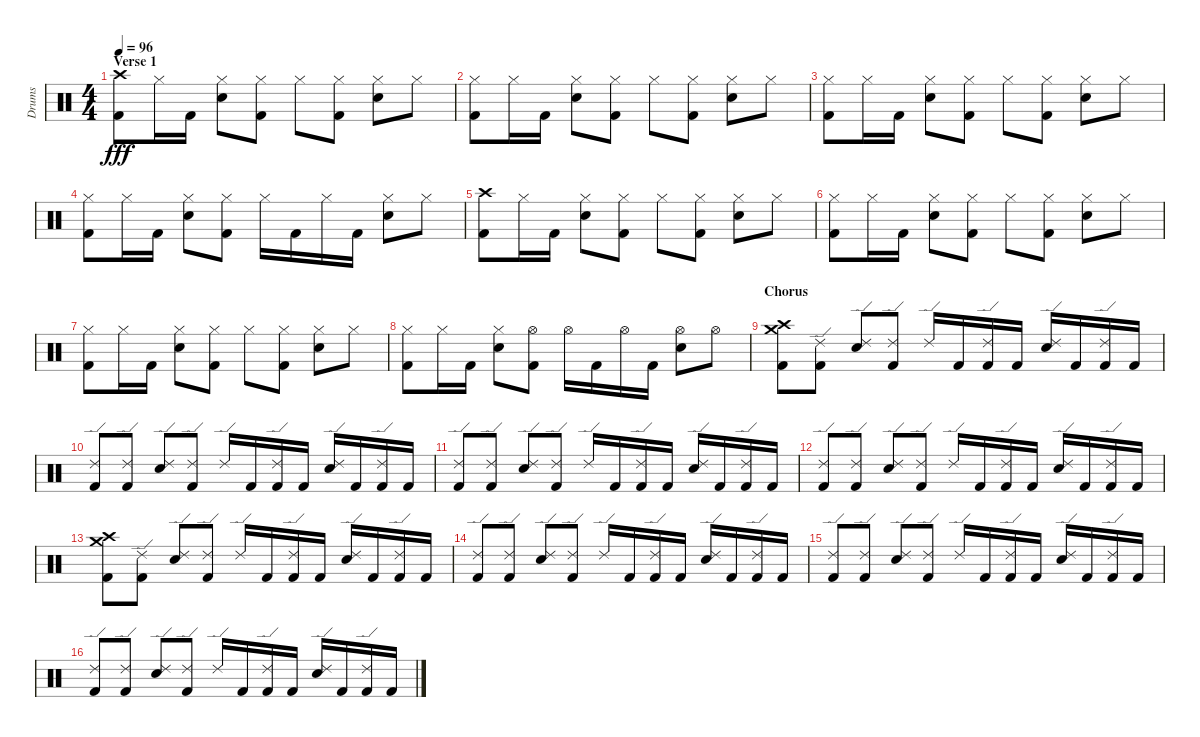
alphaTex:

\track ("Drums" "Drums") {instrument percussion}
\staff {score}
\articulation defaults
\ts (4 4)
\section ("" "Verse 1")
\tempo 96
\clef neutral
\ks c
("Crash high (hit)" "Kick (hit) 2").8{dy fff} "Hi-Hat (closed)".16 "Kick (hit) 2".16 ("Hi-Hat (closed)" "Electric Snare (hit)").8 ("Hi-Hat (closed)" "Kick (hit) 2").8 "Hi-Hat (closed)".8 ("Hi-Hat (closed)" "Kick (hit) 2").8 ("Hi-Hat (closed)" "Electric Snare (hit)").8 "Hi-Hat (closed)".8 |
("Hi-Hat (closed)" "Kick (hit) 2").8 "Hi-Hat (closed)".16 "Kick (hit) 2".16 ("Hi-Hat (closed)" "Electric Snare (hit)").8 ("Hi-Hat (closed)" "Kick (hit) 2").8 "Hi-Hat (closed)".8 ("Hi-Hat (closed)" "Kick (hit) 2").8 ("Hi-Hat (closed)" "Electric Snare (hit)").8 "Hi-Hat (closed)".8 |
("Hi-Hat (closed)" "Kick (hit) 2").8 "Hi-Hat (closed)".16 "Kick (hit) 2".16 ("Hi-Hat (closed)" "Electric Snare (hit)").8 ("Hi-Hat (closed)" "Kick (hit) 2").8 "Hi-Hat (closed)".8 ("Hi-Hat (closed)" "Kick (hit) 2").8 ("Hi-Hat (closed)" "Electric Snare (hit)").8 "Hi-Hat (closed)".8 |
("Hi-Hat (closed)" "Kick (hit) 2").8 "Hi-Hat (closed)".16 "Kick (hit) 2".16 ("Hi-Hat (closed)" "Electric Snare (hit)").8 ("Hi-Hat (closed)" "Kick (hit) 2").8 "Hi-Hat (closed)".16 "Kick (hit) 2".16 "Hi-Hat (closed)".16 "Kick (hit) 2".16 ("Hi-Hat (closed)" "Electric Snare (hit)").8 "Hi-Hat (closed)".8 |
("Crash high (hit)" "Kick (hit) 2").8 "Hi-Hat (closed)".16 "Kick (hit) 2".16 ("Hi-Hat (closed)" "Electric Snare (hit)").8 ("Hi-Hat (closed)" "Kick (hit) 2").8 "Hi-Hat (closed)".8 ("Hi-Hat (closed)" "Kick (hit) 2").8 ("Hi-Hat (closed)" "Electric Snare (hit)").8 "Hi-Hat (closed)".8 |
("Hi-Hat (closed)" "Kick (hit) 2").8 "Hi-Hat (closed)".16 "Kick (hit) 2".16 ("Hi-Hat (closed)" "Electric Snare (hit)").8 ("Hi-Hat (closed)" "Kick (hit) 2").8 "Hi-Hat (closed)".8 ("Hi-Hat (closed)" "Kick (hit) 2").8 ("Hi-Hat (closed)" "Electric Snare (hit)").8 "Hi-Hat (closed)".8 |
("Hi-Hat (closed)" "Kick (hit) 2").8 "Hi-Hat (closed)".16 "Kick (hit) 2".16 ("Hi-Hat (closed)" "Electric Snare (hit)").8 ("Hi-Hat (closed)" "Kick (hit) 2").8 "Hi-Hat (closed)".8 ("Hi-Hat (closed)" "Kick (hit) 2").8 ("Hi-Hat (closed)" "Electric Snare (hit)").8 "Hi-Hat (closed)".8 |
("Hi-Hat (closed)" "Kick (hit) 2").8 "Hi-Hat (closed)".16 "Kick (hit) 2".16 ("Hi-Hat (closed)" "Electric Snare (hit)").8 ("Hi-Hat (open)" "Kick (hit) 2").8 "Hi-Hat (open)".16 "Kick (hit) 2".16 "Hi-Hat (open)".16 "Kick (hit) 2".16 ("Hi-Hat (open)" "Electric Snare (hit)").8 "Hi-Hat (open)".8 |
\section ("" "Chorus")
("Crash high (hit)" "Crash medium (hit)" "Kick (hit) 2").8 ("Ride (edge) 2" "Kick (hit) 2").8 ("Ride (edge) 2" "Electric Snare (hit)").8 ("Ride (edge) 2" "Kick (hit) 2").8 "Ride (edge) 2".16 "Kick (hit) 2".16 ("Ride (edge) 2" "Kick (hit) 2").16 "Kick (hit) 2".16 ("Ride (edge) 2" "Electric Snare (hit)").16 "Kick (hit) 2".16 ("Ride (edge) 2" "Kick (hit) 2").16 "Kick (hit) 2".16 |
("Ride (edge) 2" "Kick (hit) 2").8 ("Ride (edge) 2" "Kick (hit) 2").8 ("Ride (edge) 2" "Electric Snare (hit)").8 ("Ride (edge) 2" "Kick (hit) 2").8 "Ride (edge) 2".16 "Kick (hit) 2".16 ("Ride (edge) 2" "Kick (hit) 2").16 "Kick (hit) 2".16 ("Ride (edge) 2" "Electric Snare (hit)").16 "Kick (hit) 2".16 ("Ride (edge) 2" "Kick (hit) 2").16 "Kick (hit) 2".16 |
("Ride (edge) 2" "Kick (hit) 2").8 ("Ride (edge) 2" "Kick (hit) 2").8 ("Ride (edge) 2" "Electric Snare (hit)").8 ("Ride (edge) 2" "Kick (hit) 2").8 "Ride (edge) 2".16 "Kick (hit) 2".16 ("Ride (edge) 2" "Kick (hit) 2").16 "Kick (hit) 2".16 ("Ride (edge) 2" "Electric Snare (hit)").16 "Kick (hit) 2".16 ("Ride (edge) 2" "Kick (hit) 2").16 "Kick (hit) 2".16 |
("Ride (edge) 2" "Kick (hit) 2").8 ("Ride (edge) 2" "Kick (hit) 2").8 ("Ride (edge) 2" "Electric Snare (hit)").8 ("Ride (edge) 2" "Kick (hit) 2").8 "Ride (edge) 2".16 "Kick (hit) 2".16 ("Ride (edge) 2" "Kick (hit) 2").16 "Kick (hit) 2".16 ("Ride (edge) 2" "Electric Snare (hit)").16 "Kick (hit) 2".16 ("Ride (edge) 2" "Kick (hit) 2").16 "Kick (hit) 2".16 |
("Crash high (hit)" "Crash medium (hit)" "Kick (hit) 2").8 ("Ride (edge) 2" "Kick (hit) 2").8 ("Ride (edge) 2" "Electric Snare (hit)").8 ("Ride (edge) 2" "Kick (hit) 2").8 "Ride (edge) 2".16 "Kick (hit) 2".16 ("Ride (edge) 2" "Kick (hit) 2").16 "Kick (hit) 2".16 ("Ride (edge) 2" "Electric Snare (hit)").16 "Kick (hit) 2".16 ("Ride (edge) 2" "Kick (hit) 2").16 "Kick (hit) 2".16 |
("Ride (edge) 2" "Kick (hit) 2").8 ("Ride (edge) 2" "Kick (hit) 2").8 ("Ride (edge) 2" "Electric Snare (hit)").8 ("Ride (edge) 2" "Kick (hit) 2").8 "Ride (edge) 2".16 "Kick (hit) 2".16 ("Ride (edge) 2" "Kick (hit) 2").16 "Kick (hit) 2".16 ("Ride (edge) 2" "Electric Snare (hit)").16 "Kick (hit) 2".16 ("Ride (edge) 2" "Kick (hit) 2").16 "Kick (hit) 2".16 |
("Ride (edge) 2" "Kick (hit) 2").8 ("Ride (edge) 2" "Kick (hit) 2").8 ("Ride (edge) 2" "Electric Snare (hit)").8 ("Ride (edge) 2" "Kick (hit) 2").8 "Ride (edge) 2".16 "Kick (hit) 2".16 ("Ride (edge) 2" "Kick (hit) 2").16 "Kick (hit) 2".16 ("Ride (edge) 2" "Electric Snare (hit)").16 "Kick (hit) 2".16 ("Ride (edge) 2" "Kick (hit) 2").16 "Kick (hit) 2".16 |
("Ride (edge) 2" "Kick (hit) 2").8 ("Ride (edge) 2" "Kick (hit) 2").8 ("Ride (edge) 2" "Electric Snare (hit)").8 ("Ride (edge) 2" "Kick (hit) 2").8 "Ride (edge) 2".16 "Kick (hit) 2".16 ("Ride (edge) 2" "Kick (hit) 2").16 "Kick (hit) 2".16 ("Ride (edge) 2" "Electric Snare (hit)").16 "Kick (hit) 2".16 ("Ride (edge) 2" "Kick (hit) 2").16 "Kick (hit) 2".16
